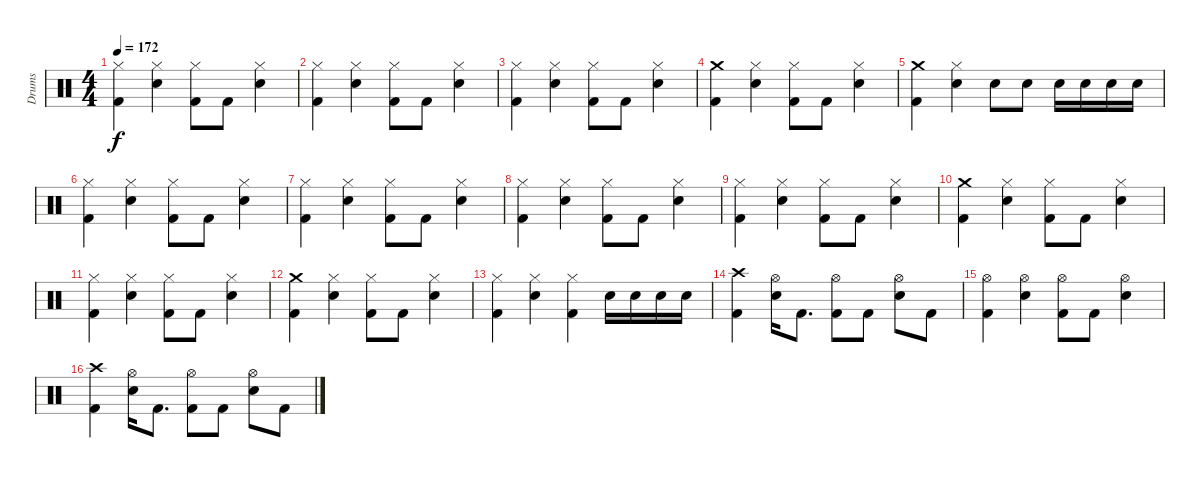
\track ("Drums" "Drums") {instrument percussion}
\staff {score}
\articulation defaults
\ts (4 4)
\tempo 172
\clef neutral
\ks c
("Kick (hit) 2" "Hi-Hat (closed)").4{dy f} ("Snare (hit) 2" "Hi-Hat (closed)").4 ("Kick (hit) 2" "Hi-Hat (closed)").8 "Kick (hit) 2".8 ("Snare (hit) 2" "Hi-Hat (closed)").4 |
("Kick (hit) 2" "Hi-Hat (closed)").4 ("Snare (hit) 2" "Hi-Hat (closed)").4 ("Kick (hit) 2" "Hi-Hat (closed)").8 "Kick (hit) 2".8 ("Snare (hit) 2" "Hi-Hat (closed)").4 |
("Kick (hit) 2" "Hi-Hat (closed)").4 ("Snare (hit) 2" "Hi-Hat (closed)").4 ("Kick (hit) 2" "Hi-Hat (closed)").8 "Kick (hit) 2".8 ("Snare (hit) 2" "Hi-Hat (closed)").4 |
("Kick (hit) 2" "Crash medium (hit)").4 ("Snare (hit) 2" "Hi-Hat (closed)").4 ("Kick (hit) 2" "Hi-Hat (closed)").8 "Kick (hit) 2".8 ("Snare (hit) 2" "Hi-Hat (closed)").4 |
("Kick (hit) 2" "Crash medium (hit)").4 ("Snare (hit) 2" "Hi-Hat (closed)").4 "Snare (hit) 2".8 "Snare (hit) 2".8 "Snare (hit) 2".16 "Snare (hit) 2".16 "Snare (hit) 2".16 "Snare (hit) 2".16 |
("Kick (hit) 2" "Hi-Hat (closed)").4 ("Snare (hit) 2" "Hi-Hat (closed)").4 ("Kick (hit) 2" "Hi-Hat (closed)").8 "Kick (hit) 2".8 ("Snare (hit) 2" "Hi-Hat (closed)").4 |
("Kick (hit) 2" "Hi-Hat (closed)").4 ("Snare (hit) 2" "Hi-Hat (closed)").4 ("Kick (hit) 2" "Hi-Hat (closed)").8 "Kick (hit) 2".8 ("Snare (hit) 2" "Hi-Hat (closed)").4 |
("Kick (hit) 2" "Hi-Hat (closed)").4 ("Snare (hit) 2" "Hi-Hat (closed)").4 ("Kick (hit) 2" "Hi-Hat (closed)").8 "Kick (hit) 2".8 ("Snare (hit) 2" "Hi-Hat (closed)").4 |
("Kick (hit) 2" "Hi-Hat (closed)").4 ("Snare (hit) 2" "Hi-Hat (closed)").4 ("Kick (hit) 2" "Hi-Hat (closed)").8 "Kick (hit) 2".8 ("Snare (hit) 2" "Hi-Hat (closed)").4 |
("Kick (hit) 2" "Crash medium (hit)").4 ("Snare (hit) 2" "Hi-Hat (closed)").4 ("Kick (hit) 2" "Hi-Hat (closed)").8 "Kick (hit) 2".8 ("Snare (hit) 2" "Hi-Hat (closed)").4 |
("Kick (hit) 2" "Hi-Hat (closed)").4 ("Snare (hit) 2" "Hi-Hat (closed)").4 ("Kick (hit) 2" "Hi-Hat (closed)").8 "Kick (hit) 2".8 ("Snare (hit) 2" "Hi-Hat (closed)").4 |
("Kick (hit) 2" "Crash medium (hit)").4 ("Snare (hit) 2" "Hi-Hat (closed)").4 ("Kick (hit) 2" "Hi-Hat (closed)").8 "Kick (hit) 2".8 ("Snare (hit) 2" "Hi-Hat (closed)").4 |
("Kick (hit) 2" "Hi-Hat (closed)").4 ("Snare (hit) 2" "Hi-Hat (closed)").4 ("Kick (hit) 2" "Hi-Hat (closed)").4 "Snare (hit) 2".16 "Snare (hit) 2".16 "Snare (hit) 2".16 "Snare (hit) 2".16 |
("Crash high (hit)" "Kick (hit) 2").4 ("Hi-Hat (open)" "Snare (hit) 2").16 "Kick (hit) 2".8{d} ("Hi-Hat (open)" "Kick (hit) 2").8 "Kick (hit) 2".8 ("Hi-Hat (open)" "Snare (hit) 2").8 "Kick (hit) 2".8 |
("Hi-Hat (open)" "Kick (hit) 2").4 ("Hi-Hat (open)" "Snare (hit) 2").4 ("Hi-Hat (open)" "Kick (hit) 2").8 "Kick (hit) 2".8 ("Hi-Hat (open)" "Snare (hit) 2").4 |
("Crash high (hit)" "Kick (hit) 2").4 ("Hi-Hat (open)" "Snare (hit) 2").16 "Kick (hit) 2".8{d} ("Hi-Hat (open)" "Kick (hit) 2").8 "Kick (hit) 2".8 ("Hi-Hat (open)" "Snare (hit) 2").8 "Kick (hit) 2".8
